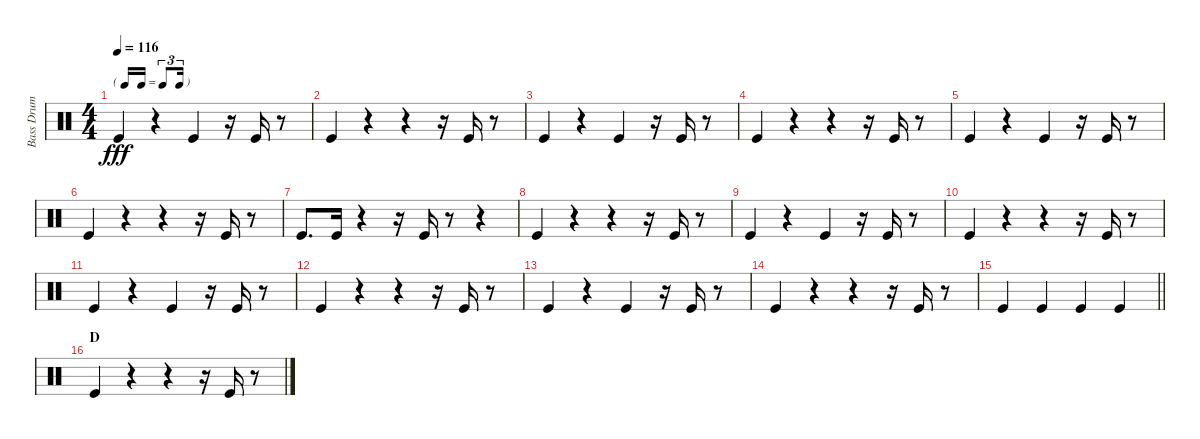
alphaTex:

\track ("Bass Drum" "Bass Drum") {instrument percussion}
\staff {score}
\articulation defaults
\ts (4 4)
\tf triplet16th
\tempo 116
\clef neutral
\ks c "Kick (hit)".4{dy fff}
r.4 "Kick (hit)".4 r.16 "Kick (hit)".16 r.8 |
"Kick (hit)".4 r.4 r.4 r.16 "Kick (hit)".16 r.8 |
"Kick (hit)".4 r.4 "Kick (hit)".4 r.16 "Kick (hit)".16 r.8 |
"Kick (hit)".4 r.4 r.4 r.16 "Kick (hit)".16 r.8 |
"Kick (hit)".4 r.4 "Kick (hit)".4 r.16 "Kick (hit)".16 r.8 |
"Kick (hit)".4 r.4 r.4 r.16 "Kick (hit)".16 r.8 |
"Kick (hit)".8{d} "Kick (hit)".16 r.4 r.16 "Kick (hit)".16 r.8 r.4 |
"Kick (hit)".4 r.4 r.4 r.16 "Kick (hit)".16 r.8 |
"Kick (hit)".4 r.4 "Kick (hit)".4 r.16 "Kick (hit)".16 r.8 |
"Kick (hit)".4 r.4 r.4 r.16 "Kick (hit)".16 r.8 |
"Kick (hit)".4 r.4 "Kick (hit)".4 r.16 "Kick (hit)".16 r.8 |
"Kick (hit)".4 r.4 r.4 r.16 "Kick (hit)".16 r.8 |
"Kick (hit)".4 r.4 "Kick (hit)".4 r.16 "Kick (hit)".16 r.8 |
"Kick (hit)".4 r.4 r.4 r.16 "Kick (hit)".16 r.8 |
\barLineRight lightlight "Kick (hit)".4 "Kick (hit)".4 "Kick (hit)".4 "Kick (hit)".4
|
\section ("" "D")
"Kick (hit)".4 r.4 r.4 r.16 "Kick (hit)".16 r.8
